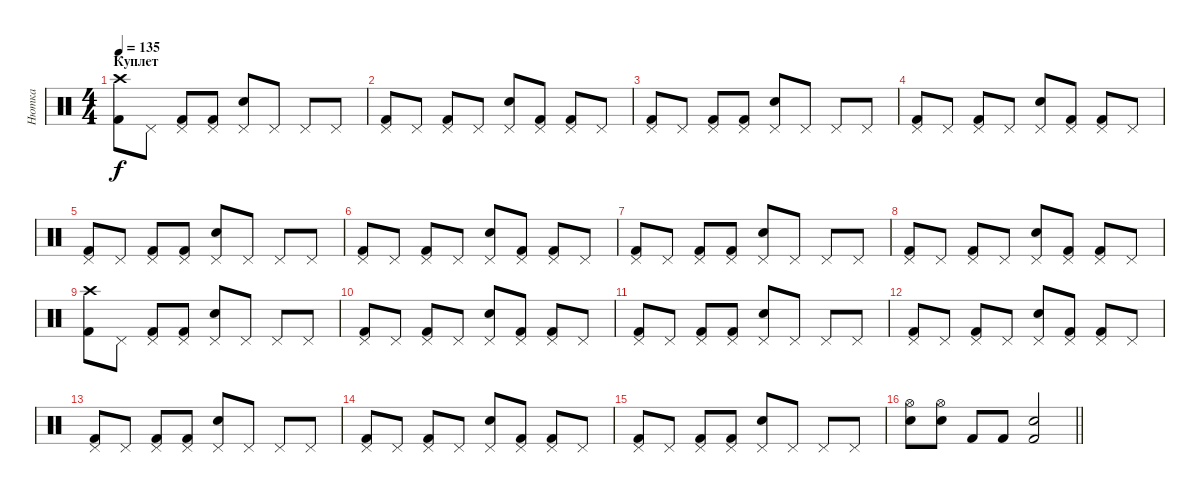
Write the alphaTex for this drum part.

\track ("Нютка" "Нютка") {instrument percussion}
\staff {score}
\articulation defaults
\ts (4 4)
\section ("" "Куплет")
\tempo 135
\clef neutral
\ks c
("Crash high (hit)" "Kick (hit) 2").8{dy f} "Pedal Hi-Hat (hit)".8 ("Pedal Hi-Hat (hit)" "Kick (hit) 2").8 ("Pedal Hi-Hat (hit)" "Kick (hit) 2").8 ("Pedal Hi-Hat (hit)" "Snare (hit) 2").8 "Pedal Hi-Hat (hit)".8 "Pedal Hi-Hat (hit)".8 "Pedal Hi-Hat (hit)".8 |
("Pedal Hi-Hat (hit)" "Kick (hit) 2").8 "Pedal Hi-Hat (hit)".8 ("Pedal Hi-Hat (hit)" "Kick (hit) 2").8 "Pedal Hi-Hat (hit)".8 ("Pedal Hi-Hat (hit)" "Snare (hit) 2").8 ("Pedal Hi-Hat (hit)" "Kick (hit) 2").8 ("Pedal Hi-Hat (hit)" "Kick (hit) 2").8 "Pedal Hi-Hat (hit)".8 |
("Pedal Hi-Hat (hit)" "Kick (hit) 2").8 "Pedal Hi-Hat (hit)".8 ("Pedal Hi-Hat (hit)" "Kick (hit) 2").8 ("Pedal Hi-Hat (hit)" "Kick (hit) 2").8 ("Pedal Hi-Hat (hit)" "Snare (hit) 2").8 "Pedal Hi-Hat (hit)".8 "Pedal Hi-Hat (hit)".8 "Pedal Hi-Hat (hit)".8 |
("Pedal Hi-Hat (hit)" "Kick (hit) 2").8 "Pedal Hi-Hat (hit)".8 ("Pedal Hi-Hat (hit)" "Kick (hit) 2").8 "Pedal Hi-Hat (hit)".8 ("Pedal Hi-Hat (hit)" "Snare (hit) 2").8 ("Pedal Hi-Hat (hit)" "Kick (hit) 2").8 ("Pedal Hi-Hat (hit)" "Kick (hit) 2").8 "Pedal Hi-Hat (hit)".8 |
("Pedal Hi-Hat (hit)" "Kick (hit) 2").8 "Pedal Hi-Hat (hit)".8 ("Pedal Hi-Hat (hit)" "Kick (hit) 2").8 ("Pedal Hi-Hat (hit)" "Kick (hit) 2").8 ("Pedal Hi-Hat (hit)" "Snare (hit) 2").8 "Pedal Hi-Hat (hit)".8 "Pedal Hi-Hat (hit)".8 "Pedal Hi-Hat (hit)".8 |
("Pedal Hi-Hat (hit)" "Kick (hit) 2").8 "Pedal Hi-Hat (hit)".8 ("Pedal Hi-Hat (hit)" "Kick (hit) 2").8 "Pedal Hi-Hat (hit)".8 ("Pedal Hi-Hat (hit)" "Snare (hit) 2").8 ("Pedal Hi-Hat (hit)" "Kick (hit) 2").8 ("Pedal Hi-Hat (hit)" "Kick (hit) 2").8 "Pedal Hi-Hat (hit)".8 |
("Pedal Hi-Hat (hit)" "Kick (hit) 2").8 "Pedal Hi-Hat (hit)".8 ("Pedal Hi-Hat (hit)" "Kick (hit) 2").8 ("Pedal Hi-Hat (hit)" "Kick (hit) 2").8 ("Pedal Hi-Hat (hit)" "Snare (hit) 2").8 "Pedal Hi-Hat (hit)".8 "Pedal Hi-Hat (hit)".8 "Pedal Hi-Hat (hit)".8 |
("Pedal Hi-Hat (hit)" "Kick (hit) 2").8 "Pedal Hi-Hat (hit)".8 ("Pedal Hi-Hat (hit)" "Kick (hit) 2").8 "Pedal Hi-Hat (hit)".8 ("Pedal Hi-Hat (hit)" "Snare (hit) 2").8 ("Pedal Hi-Hat (hit)" "Kick (hit) 2").8 ("Pedal Hi-Hat (hit)" "Kick (hit) 2").8 "Pedal Hi-Hat (hit)".8 |
("Crash high (hit)" "Kick (hit) 2").8 "Pedal Hi-Hat (hit)".8 ("Pedal Hi-Hat (hit)" "Kick (hit) 2").8 ("Pedal Hi-Hat (hit)" "Kick (hit) 2").8 ("Pedal Hi-Hat (hit)" "Snare (hit) 2").8 "Pedal Hi-Hat (hit)".8 "Pedal Hi-Hat (hit)".8 "Pedal Hi-Hat (hit)".8 |
("Pedal Hi-Hat (hit)" "Kick (hit) 2").8 "Pedal Hi-Hat (hit)".8 ("Pedal Hi-Hat (hit)" "Kick (hit) 2").8 "Pedal Hi-Hat (hit)".8 ("Pedal Hi-Hat (hit)" "Snare (hit) 2").8 ("Pedal Hi-Hat (hit)" "Kick (hit) 2").8 ("Pedal Hi-Hat (hit)" "Kick (hit) 2").8 "Pedal Hi-Hat (hit)".8 |
("Pedal Hi-Hat (hit)" "Kick (hit) 2").8 "Pedal Hi-Hat (hit)".8 ("Pedal Hi-Hat (hit)" "Kick (hit) 2").8 ("Pedal Hi-Hat (hit)" "Kick (hit) 2").8 ("Pedal Hi-Hat (hit)" "Snare (hit) 2").8 "Pedal Hi-Hat (hit)".8 "Pedal Hi-Hat (hit)".8 "Pedal Hi-Hat (hit)".8 |
("Pedal Hi-Hat (hit)" "Kick (hit) 2").8 "Pedal Hi-Hat (hit)".8 ("Pedal Hi-Hat (hit)" "Kick (hit) 2").8 "Pedal Hi-Hat (hit)".8 ("Pedal Hi-Hat (hit)" "Snare (hit) 2").8 ("Pedal Hi-Hat (hit)" "Kick (hit) 2").8 ("Pedal Hi-Hat (hit)" "Kick (hit) 2").8 "Pedal Hi-Hat (hit)".8 |
("Pedal Hi-Hat (hit)" "Kick (hit) 2").8 "Pedal Hi-Hat (hit)".8 ("Pedal Hi-Hat (hit)" "Kick (hit) 2").8 ("Pedal Hi-Hat (hit)" "Kick (hit) 2").8 ("Pedal Hi-Hat (hit)" "Snare (hit) 2").8 "Pedal Hi-Hat (hit)".8 "Pedal Hi-Hat (hit)".8 "Pedal Hi-Hat (hit)".8 |
("Pedal Hi-Hat (hit)" "Kick (hit) 2").8 "Pedal Hi-Hat (hit)".8 ("Pedal Hi-Hat (hit)" "Kick (hit) 2").8 "Pedal Hi-Hat (hit)".8 ("Pedal Hi-Hat (hit)" "Snare (hit) 2").8 ("Pedal Hi-Hat (hit)" "Kick (hit) 2").8 ("Pedal Hi-Hat (hit)" "Kick (hit) 2").8 "Pedal Hi-Hat (hit)".8 |
("Pedal Hi-Hat (hit)" "Kick (hit) 2").8 "Pedal Hi-Hat (hit)".8 ("Pedal Hi-Hat (hit)" "Kick (hit) 2").8 ("Pedal Hi-Hat (hit)" "Kick (hit) 2").8 ("Pedal Hi-Hat (hit)" "Snare (hit) 2").8 "Pedal Hi-Hat (hit)".8 "Pedal Hi-Hat (hit)".8 "Pedal Hi-Hat (hit)".8 |
\barLineRight lightlight
("Hi-Hat (open)" "Snare (hit) 2").8 ("Hi-Hat (open)" "Snare (hit) 2").8 "Kick (hit) 2".8 "Kick (hit) 2".8 ("Snare (hit) 2" "Kick (hit) 2").2
